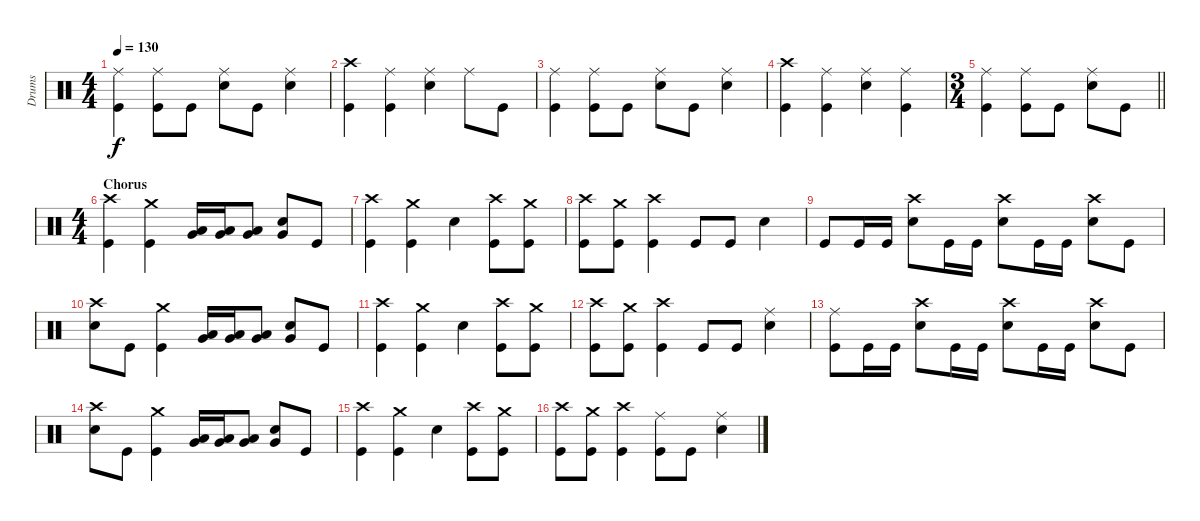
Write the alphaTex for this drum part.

\track ("Drums" "Drums") {instrument percussion}
\staff {score}
\articulation defaults
\ts (4 4)
\tempo 130
\clef neutral
\ks c
("Ride (middle)" "Kick (hit)").4{dy f} ("Ride (middle)" "Kick (hit)").8 "Kick (hit)".8 ("Ride (middle)" "Snare (hit) 2").8 "Kick (hit)".8 ("Ride (middle)" "Snare (hit) 2").4 |
("Crash high (hit)" "Kick (hit)").4 ("Ride (middle)" "Kick (hit)").4 ("Ride (middle)" "Snare (hit) 2").4 "Ride (middle)".8 "Kick (hit)".8 |
("Ride (middle)" "Kick (hit)").4 ("Ride (middle)" "Kick (hit)").8 "Kick (hit)".8 ("Ride (middle)" "Snare (hit) 2").8 "Kick (hit)".8 ("Ride (middle)" "Snare (hit) 2").4 |
("Crash high (hit)" "Kick (hit)").4 ("Ride (middle)" "Kick (hit)").4 ("Ride (middle)" "Snare (hit) 2").4 ("Ride (middle)" "Kick (hit)").4 |
\ts (3 4)
\barLineRight lightlight
("Ride (middle)" "Kick (hit)").4 ("Ride (middle)" "Kick (hit)").8 "Kick (hit)".8 ("Ride (middle)" "Snare (hit) 2").8 "Kick (hit)".8 |
\ts (4 4)
\section ("" "Chorus")
("Crash high (hit)" "Kick (hit)").4 ("Crash medium (hit)" "Kick (hit)").4 ("Low Tom (hit)" "Very Low Tom (hit)").16 ("Low Tom (hit)" "Very Low Tom (hit)").16 ("Low Tom (hit)" "Very Low Tom (hit)").8 ("Snare (hit) 2" "Very Low Tom (hit)").8 "Kick (hit)".8 |
("Crash high (hit)" "Kick (hit)").4 ("Crash medium (hit)" "Kick (hit)").4 "Snare (hit) 2".4 ("Crash high (hit)" "Kick (hit)").8 ("Crash medium (hit)" "Kick (hit)").8 |
("Crash high (hit)" "Kick (hit)").8 ("Crash medium (hit)" "Kick (hit)").8 ("Crash high (hit)" "Kick (hit)").4 "Kick (hit)".8 "Kick (hit)".8 "Snare (hit) 2".4 |
"Kick (hit)".8 "Kick (hit)".16 "Kick (hit)".16 ("Crash high (hit)" "Snare (hit) 2").8 "Kick (hit)".16 "Kick (hit)".16 ("Crash high (hit)" "Snare (hit) 2").8 "Kick (hit)".16 "Kick (hit)".16 ("Crash high (hit)" "Snare (hit) 2").8 "Kick (hit)".8 |
("Crash high (hit)" "Snare (hit) 2").8 "Kick (hit)".8 ("Crash medium (hit)" "Kick (hit)").4 ("Low Tom (hit)" "Very Low Tom (hit)").16 ("Low Tom (hit)" "Very Low Tom (hit)").16 ("Low Tom (hit)" "Very Low Tom (hit)").8 ("Snare (hit) 2" "Very Low Tom (hit)").8 "Kick (hit)".8 |
("Crash high (hit)" "Kick (hit)").4 ("Crash medium (hit)" "Kick (hit)").4 "Snare (hit) 2".4 ("Crash high (hit)" "Kick (hit)").8 ("Crash medium (hit)" "Kick (hit)").8 |
("Crash high (hit)" "Kick (hit)").8 ("Crash medium (hit)" "Kick (hit)").8 ("Crash high (hit)" "Kick (hit)").4 "Kick (hit)".8 "Kick (hit)".8 ("Ride (middle)" "Snare (hit) 2").4 |
("Ride (middle)" "Kick (hit)").8 "Kick (hit)".16 "Kick (hit)".16 ("Crash high (hit)" "Snare (hit) 2").8 "Kick (hit)".16 "Kick (hit)".16 ("Crash high (hit)" "Snare (hit) 2").8 "Kick (hit)".16 "Kick (hit)".16 ("Crash high (hit)" "Snare (hit) 2").8 "Kick (hit)".8 |
("Crash high (hit)" "Snare (hit) 2").8 "Kick (hit)".8 ("Crash medium (hit)" "Kick (hit)").4 ("Low Tom (hit)" "Very Low Tom (hit)").16 ("Low Tom (hit)" "Very Low Tom (hit)").16 ("Low Tom (hit)" "Very Low Tom (hit)").8 ("Snare (hit) 2" "Very Low Tom (hit)").8 "Kick (hit)".8 |
("Crash high (hit)" "Kick (hit)").4 ("Crash medium (hit)" "Kick (hit)").4 "Snare (hit) 2".4 ("Crash high (hit)" "Kick (hit)").8 ("Crash medium (hit)" "Kick (hit)").8 |
("Crash high (hit)" "Kick (hit)").8 ("Crash medium (hit)" "Kick (hit)").8 ("Crash high (hit)" "Kick (hit)").4 ("Ride (middle)" "Kick (hit)").8 "Kick (hit)".8 ("Ride (middle)" "Snare (hit) 2").4
